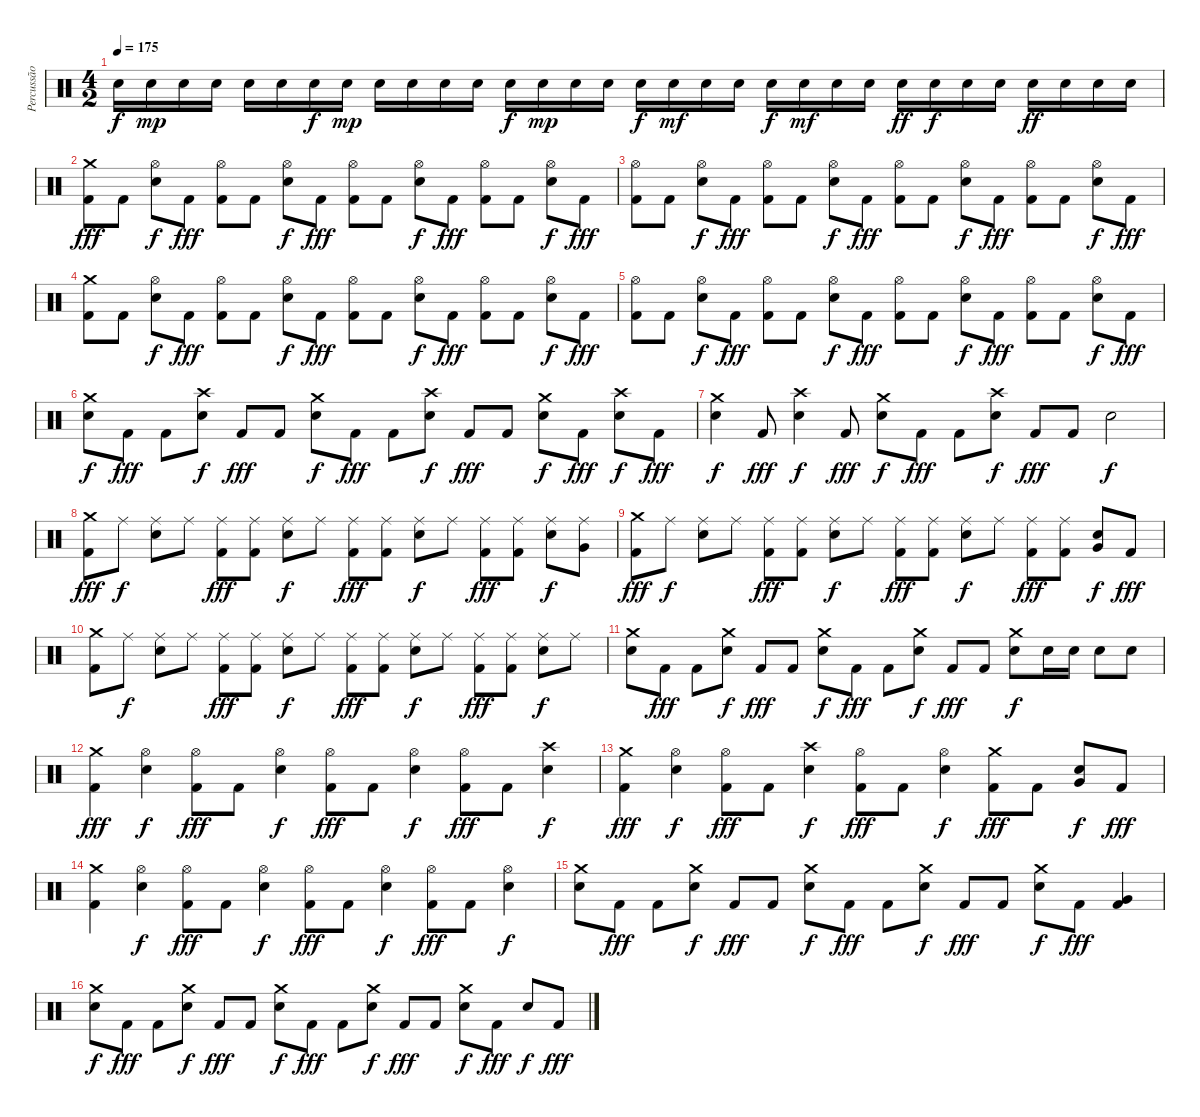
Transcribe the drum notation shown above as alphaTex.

\track ("Percussão" "Percussão") {instrument percussion}
\staff {score}
\articulation defaults
\ts (4 2)
\tempo 175
\clef neutral
\ks c "Electric Snare (hit)".16{dy f} "Electric Snare (hit)".16{dy mp} "Electric Snare (hit)".16 "Electric Snare (hit)".16 "Electric Snare (hit)".16 "Electric Snare (hit)".16 "Electric Snare (hit)".16{dy f} "Electric Snare (hit)".16{dy mp} "Electric Snare (hit)".16 "Electric Snare (hit)".16 "Electric Snare (hit)".16 "Electric Snare (hit)".16 "Electric Snare (hit)".16{dy f} "Electric Snare (hit)".16{dy mp} "Electric Snare (hit)".16 "Electric Snare (hit)".16 "Electric Snare (hit)".16{dy f} "Electric Snare (hit)".16{dy mf} "Electric Snare (hit)".16 "Electric Snare (hit)".16 "Electric Snare (hit)".16{dy f} "Electric Snare (hit)".16{dy mf} "Electric Snare (hit)".16 "Electric Snare (hit)".16 "Electric Snare (hit)".16{dy ff} "Electric Snare (hit)".16{dy f} "Electric Snare (hit)".16 "Electric Snare (hit)".16 "Electric Snare (hit)".16{dy ff} "Electric Snare (hit)".16 "Electric Snare (hit)".16 "Electric Snare (hit)".16
|
("Crash medium (hit)" "Kick (hit) 2").8{dy fff} "Kick (hit) 2".8 ("Hi-Hat (open)" "Electric Snare (hit)").8{dy f} "Kick (hit) 2".8{dy fff} ("Hi-Hat (open)" "Kick (hit) 2").8 "Kick (hit) 2".8 ("Hi-Hat (open)" "Electric Snare (hit)").8{dy f} "Kick (hit) 2".8{dy fff} ("Hi-Hat (open)" "Kick (hit) 2").8 "Kick (hit) 2".8 ("Hi-Hat (open)" "Electric Snare (hit)").8{dy f} "Kick (hit) 2".8{dy fff} ("Hi-Hat (open)" "Kick (hit) 2").8 "Kick (hit) 2".8 ("Hi-Hat (open)" "Electric Snare (hit)").8{dy f} "Kick (hit) 2".8{dy fff} |
("Hi-Hat (open)" "Kick (hit) 2").8 "Kick (hit) 2".8 ("Hi-Hat (open)" "Electric Snare (hit)").8{dy f} "Kick (hit) 2".8{dy fff} ("Hi-Hat (open)" "Kick (hit) 2").8 "Kick (hit) 2".8 ("Hi-Hat (open)" "Electric Snare (hit)").8{dy f} "Kick (hit) 2".8{dy fff} ("Hi-Hat (open)" "Kick (hit) 2").8 "Kick (hit) 2".8 ("Hi-Hat (open)" "Electric Snare (hit)").8{dy f} "Kick (hit) 2".8{dy fff} ("Hi-Hat (open)" "Kick (hit) 2").8 "Kick (hit) 2".8 ("Hi-Hat (open)" "Electric Snare (hit)").8{dy f} "Kick (hit) 2".8{dy fff} |
("Crash medium (hit)" "Kick (hit) 2").8 "Kick (hit) 2".8 ("Hi-Hat (open)" "Electric Snare (hit)").8{dy f} "Kick (hit) 2".8{dy fff} ("Hi-Hat (open)" "Kick (hit) 2").8 "Kick (hit) 2".8 ("Hi-Hat (open)" "Electric Snare (hit)").8{dy f} "Kick (hit) 2".8{dy fff} ("Hi-Hat (open)" "Kick (hit) 2").8 "Kick (hit) 2".8 ("Hi-Hat (open)" "Electric Snare (hit)").8{dy f} "Kick (hit) 2".8{dy fff} ("Hi-Hat (open)" "Kick (hit) 2").8 "Kick (hit) 2".8 ("Hi-Hat (open)" "Electric Snare (hit)").8{dy f} "Kick (hit) 2".8{dy fff} |
("Hi-Hat (open)" "Kick (hit) 2").8 "Kick (hit) 2".8 ("Hi-Hat (open)" "Electric Snare (hit)").8{dy f} "Kick (hit) 2".8{dy fff} ("Hi-Hat (open)" "Kick (hit) 2").8 "Kick (hit) 2".8 ("Hi-Hat (open)" "Electric Snare (hit)").8{dy f} "Kick (hit) 2".8{dy fff} ("Hi-Hat (open)" "Kick (hit) 2").8 "Kick (hit) 2".8 ("Hi-Hat (open)" "Electric Snare (hit)").8{dy f} "Kick (hit) 2".8{dy fff} ("Hi-Hat (open)" "Kick (hit) 2").8 "Kick (hit) 2".8 ("Hi-Hat (open)" "Electric Snare (hit)").8{dy f} "Kick (hit) 2".8{dy fff} |
("Crash medium (hit)" "Electric Snare (hit)").8{dy f} "Kick (hit) 2".8{dy fff} "Kick (hit) 2".8 ("Crash high (hit)" "Electric Snare (hit)").8{dy f} "Kick (hit) 2".8{dy fff} "Kick (hit) 2".8 ("Crash medium (hit)" "Electric Snare (hit)").8{dy f} "Kick (hit) 2".8{dy fff} "Kick (hit) 2".8 ("Crash high (hit)" "Electric Snare (hit)").8{dy f} "Kick (hit) 2".8{dy fff} "Kick (hit) 2".8 ("Crash medium (hit)" "Electric Snare (hit)").8{dy f} "Kick (hit) 2".8{dy fff} ("Crash high (hit)" "Electric Snare (hit)").8{dy f} "Kick (hit) 2".8{dy fff} |
("Crash medium (hit)" "Electric Snare (hit)").4{dy f} "Kick (hit) 2".8{dy fff} ("Crash high (hit)" "Electric Snare (hit)").4{dy f} "Kick (hit) 2".8{dy fff} ("Crash medium (hit)" "Electric Snare (hit)").8{dy f} "Kick (hit) 2".8{dy fff} "Kick (hit) 2".8 ("Crash high (hit)" "Electric Snare (hit)").8{dy f} "Kick (hit) 2".8{dy fff} "Kick (hit) 2".8 "Electric Snare (hit)".2{dy f} |
("Crash medium (hit)" "Kick (hit) 2").8{dy fff} "Ride (middle)".8{dy f} ("Ride (middle)" "Electric Snare (hit)").8 "Ride (middle)".8 ("Ride (middle)" "Kick (hit) 2").8{dy fff} ("Ride (middle)" "Kick (hit) 2").8 ("Ride (middle)" "Electric Snare (hit)").8{dy f} "Ride (middle)".8 ("Ride (middle)" "Kick (hit) 2").8{dy fff} ("Ride (middle)" "Kick (hit) 2").8 ("Ride (middle)" "Electric Snare (hit)").8{dy f} "Ride (middle)".8 ("Ride (middle)" "Kick (hit) 2").8{dy fff} ("Ride (middle)" "Kick (hit) 2").8 ("Ride (middle)" "Electric Snare (hit)").8{dy f} ("Ride (middle)" "Very Low Tom (hit)").8 |
("Crash medium (hit)" "Kick (hit) 2").8{dy fff} "Ride (middle)".8{dy f} ("Ride (middle)" "Electric Snare (hit)").8 "Ride (middle)".8 ("Ride (middle)" "Kick (hit) 2").8{dy fff} ("Ride (middle)" "Kick (hit) 2").8 ("Ride (middle)" "Electric Snare (hit)").8{dy f} "Ride (middle)".8 ("Ride (middle)" "Kick (hit) 2").8{dy fff} ("Ride (middle)" "Kick (hit) 2").8 ("Ride (middle)" "Electric Snare (hit)").8{dy f} "Ride (middle)".8 ("Ride (middle)" "Kick (hit) 2").8{dy fff} ("Ride (middle)" "Kick (hit) 2").8 ("Very Low Tom (hit)" "Electric Snare (hit)").8{dy f} "Kick (hit) 2".8{dy fff} |
("Crash medium (hit)" "Kick (hit) 2").8 "Ride (middle)".8{dy f} ("Ride (middle)" "Electric Snare (hit)").8 "Ride (middle)".8 ("Ride (middle)" "Kick (hit) 2").8{dy fff} ("Ride (middle)" "Kick (hit) 2").8 ("Ride (middle)" "Electric Snare (hit)").8{dy f} "Ride (middle)".8 ("Ride (middle)" "Kick (hit) 2").8{dy fff} ("Ride (middle)" "Kick (hit) 2").8 ("Ride (middle)" "Electric Snare (hit)").8{dy f} "Ride (middle)".8 ("Ride (middle)" "Kick (hit) 2").8{dy fff} ("Ride (middle)" "Kick (hit) 2").8 ("Ride (middle)" "Electric Snare (hit)").8{dy f} "Ride (middle)".8 |
("Crash medium (hit)" "Electric Snare (hit)").8 "Kick (hit) 2".8{dy fff} "Kick (hit) 2".8 ("Crash medium (hit)" "Electric Snare (hit)").8{dy f} "Kick (hit) 2".8{dy fff} "Kick (hit) 2".8 ("Crash medium (hit)" "Electric Snare (hit)").8{dy f} "Kick (hit) 2".8{dy fff} "Kick (hit) 2".8 ("Crash medium (hit)" "Electric Snare (hit)").8{dy f} "Kick (hit) 2".8{dy fff} "Kick (hit) 2".8 ("Crash medium (hit)" "Electric Snare (hit)").8{dy f} "Electric Snare (hit)".16 "Electric Snare (hit)".16 "Electric Snare (hit)".8 "Electric Snare (hit)".8 |
("Crash medium (hit)" "Kick (hit) 2").4{dy fff} ("Hi-Hat (open)" "Electric Snare (hit)").4{dy f} ("Hi-Hat (open)" "Kick (hit) 2").8{dy fff} "Kick (hit) 2".8 ("Hi-Hat (open)" "Electric Snare (hit)").4{dy f} ("Hi-Hat (open)" "Kick (hit) 2").8{dy fff} "Kick (hit) 2".8 ("Hi-Hat (open)" "Electric Snare (hit)").4{dy f} ("Hi-Hat (open)" "Kick (hit) 2").8{dy fff} "Kick (hit) 2".8 ("Crash high (hit)" "Electric Snare (hit)").4{dy f} |
("Crash medium (hit)" "Kick (hit) 2").4{dy fff} ("Hi-Hat (open)" "Electric Snare (hit)").4{dy f} ("Hi-Hat (open)" "Kick (hit) 2").8{dy fff} "Kick (hit) 2".8 ("Crash high (hit)" "Electric Snare (hit)").4{dy f} ("Hi-Hat (open)" "Kick (hit) 2").8{dy fff} "Kick (hit) 2".8 ("Hi-Hat (open)" "Electric Snare (hit)").4{dy f} ("Crash medium (hit)" "Kick (hit) 2").8{dy fff} "Kick (hit) 2".8 ("Very Low Tom (hit)" "Electric Snare (hit)").8{dy f} "Kick (hit) 2".8{dy fff} |
("Crash medium (hit)" "Kick (hit) 2").4 ("Hi-Hat (open)" "Electric Snare (hit)").4{dy f} ("Hi-Hat (open)" "Kick (hit) 2").8{dy fff} "Kick (hit) 2".8 ("Hi-Hat (open)" "Electric Snare (hit)").4{dy f} ("Hi-Hat (open)" "Kick (hit) 2").8{dy fff} "Kick (hit) 2".8 ("Hi-Hat (open)" "Electric Snare (hit)").4{dy f} ("Hi-Hat (open)" "Kick (hit) 2").8{dy fff} "Kick (hit) 2".8 ("Hi-Hat (open)" "Electric Snare (hit)").4{dy f} |
("Crash medium (hit)" "Electric Snare (hit)").8 "Kick (hit) 2".8{dy fff} "Kick (hit) 2".8 ("Crash medium (hit)" "Electric Snare (hit)").8{dy f} "Kick (hit) 2".8{dy fff} "Kick (hit) 2".8 ("Crash medium (hit)" "Electric Snare (hit)").8{dy f} "Kick (hit) 2".8{dy fff} "Kick (hit) 2".8 ("Crash medium (hit)" "Electric Snare (hit)").8{dy f} "Kick (hit) 2".8{dy fff} "Kick (hit) 2".8 ("Crash medium (hit)" "Electric Snare (hit)").8{dy f} "Kick (hit) 2".8{dy fff} ("Very Low Tom (hit)" "Kick (hit) 2").4 |
("Crash medium (hit)" "Electric Snare (hit)").8{dy f} "Kick (hit) 2".8{dy fff} "Kick (hit) 2".8 ("Crash medium (hit)" "Electric Snare (hit)").8{dy f} "Kick (hit) 2".8{dy fff} "Kick (hit) 2".8 ("Crash medium (hit)" "Electric Snare (hit)").8{dy f} "Kick (hit) 2".8{dy fff} "Kick (hit) 2".8 ("Crash medium (hit)" "Electric Snare (hit)").8{dy f} "Kick (hit) 2".8{dy fff} "Kick (hit) 2".8 ("Crash medium (hit)" "Electric Snare (hit)").8{dy f} "Kick (hit) 2".8{dy fff} "Electric Snare (hit)".8{dy f} "Kick (hit) 2".8{dy fff}
